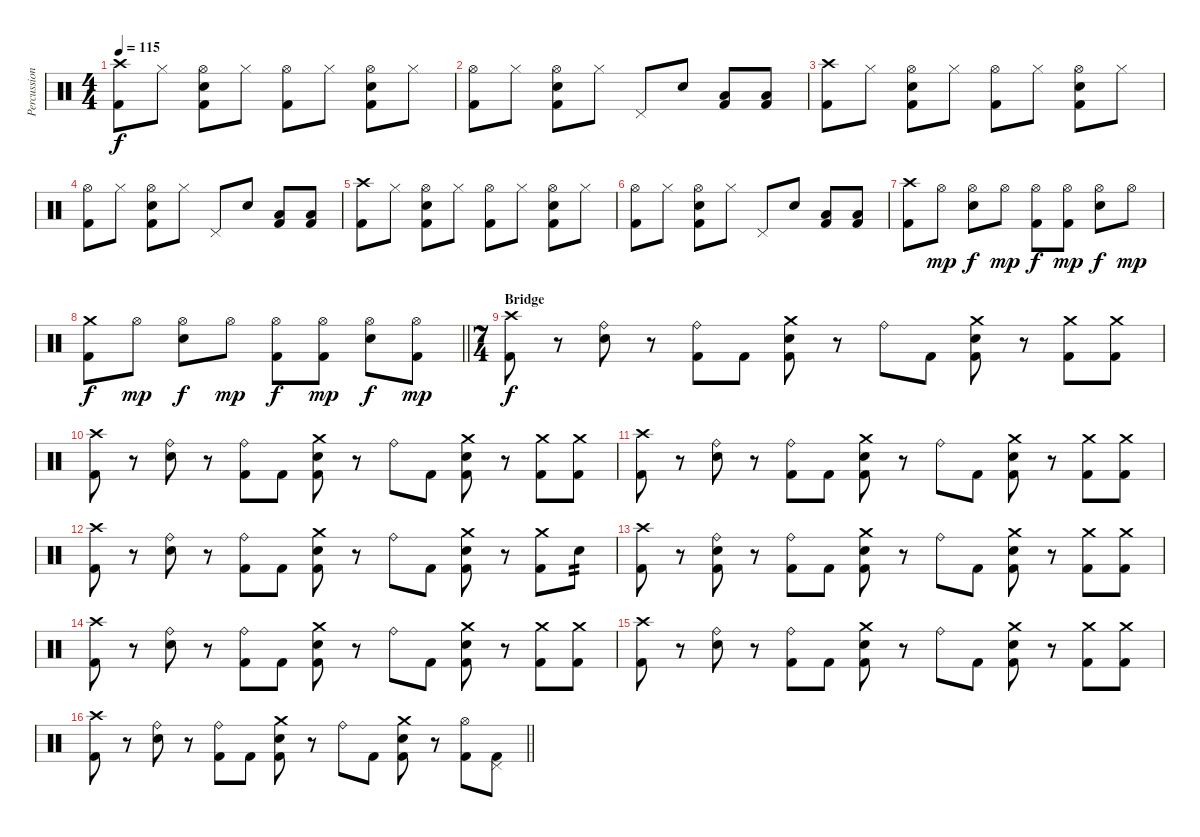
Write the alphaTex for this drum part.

\track ("Percussion" "Percussion") {instrument percussion}
\staff {score}
\articulation defaults
\ts (4 4)
\tempo 115
\clef neutral
\ks c
("Crash high (hit)" "Kick (hit) 2").8{dy f} "Hi-Hat (closed)".8 ("Hi-Hat (open)" "Electric Snare (hit)" "Kick (hit) 2").8 "Hi-Hat (closed)".8 ("Hi-Hat (open)" "Kick (hit) 2").8 "Hi-Hat (closed)".8 ("Hi-Hat (open)" "Electric Snare (hit)" "Kick (hit) 2").8 "Hi-Hat (closed)".8 |
("Hi-Hat (open)" "Kick (hit) 2").8 "Hi-Hat (closed)".8 ("Hi-Hat (open)" "Electric Snare (hit)" "Kick (hit) 2").8 "Hi-Hat (closed)".8 "Pedal Hi-Hat (hit)".8 "Electric Snare (hit)".8 ("Low Tom (hit)" "Kick (hit) 2").8 ("Low Floor Tom (hit)" "Kick (hit) 2").8 |
("Crash high (hit)" "Kick (hit) 2").8 "Hi-Hat (closed)".8 ("Hi-Hat (open)" "Electric Snare (hit)" "Kick (hit) 2").8 "Hi-Hat (closed)".8 ("Hi-Hat (open)" "Kick (hit) 2").8 "Hi-Hat (closed)".8 ("Hi-Hat (open)" "Electric Snare (hit)" "Kick (hit) 2").8 "Hi-Hat (closed)".8 |
("Hi-Hat (open)" "Kick (hit) 2").8 "Hi-Hat (closed)".8 ("Hi-Hat (open)" "Electric Snare (hit)" "Kick (hit) 2").8 "Hi-Hat (closed)".8 "Pedal Hi-Hat (hit)".8 "Electric Snare (hit)".8 ("Low Tom (hit)" "Kick (hit) 2").8 ("Low Floor Tom (hit)" "Kick (hit) 2").8 |
("Crash high (hit)" "Kick (hit) 2").8 "Hi-Hat (closed)".8 ("Hi-Hat (open)" "Electric Snare (hit)" "Kick (hit) 2").8 "Hi-Hat (closed)".8 ("Hi-Hat (open)" "Kick (hit) 2").8 "Hi-Hat (closed)".8 ("Hi-Hat (open)" "Electric Snare (hit)" "Kick (hit) 2").8 "Hi-Hat (closed)".8 |
("Hi-Hat (open)" "Kick (hit) 2").8 "Hi-Hat (closed)".8 ("Hi-Hat (open)" "Electric Snare (hit)" "Kick (hit) 2").8 "Hi-Hat (closed)".8 "Pedal Hi-Hat (hit)".8 "Electric Snare (hit)".8 ("Low Tom (hit)" "Kick (hit) 2").8 ("Low Floor Tom (hit)" "Kick (hit) 2").8 |
("Crash high (hit)" "Kick (hit) 2").8 "Hi-Hat (open)".8{dy mp} ("Hi-Hat (open)" "Electric Snare (hit)").8{dy f} "Hi-Hat (open)".8{dy mp} ("Hi-Hat (open)" "Kick (hit) 2").8{dy f} ("Hi-Hat (open)" "Kick (hit) 2").8{dy mp} ("Hi-Hat (open)" "Electric Snare (hit)").8{dy f} "Hi-Hat (open)".8{dy mp} |
\barLineRight lightlight
("Crash medium (hit)" "Kick (hit) 2").8{dy f} "Hi-Hat (open)".8{dy mp} ("Hi-Hat (open)" "Electric Snare (hit)").8{dy f} "Hi-Hat (open)".8{dy mp} ("Hi-Hat (open)" "Kick (hit) 2").8{dy f} ("Hi-Hat (open)" "Kick (hit) 2").8{dy mp} ("Hi-Hat (open)" "Electric Snare (hit)").8{dy f} ("Hi-Hat (open)" "Kick (hit) 2").8{dy mp} |
\ts (7 4)
\section ("" "Bridge")
("Crash high (hit)" "Kick (hit) 2").8{dy f} r.8 ("Ride (bell)" "Electric Snare (hit)").8 r.8 ("Ride (bell)" "Kick (hit) 2").8 "Kick (hit) 2".8 ("Crash medium (hit)" "Electric Snare (hit)" "Kick (hit) 2").8 r.8 "Ride (bell)".8 "Kick (hit) 2".8 ("Crash medium (hit)" "Electric Snare (hit)" "Kick (hit) 2").8 r.8 ("Crash medium (hit)" "Kick (hit) 2").8 ("Crash medium (hit)" "Kick (hit) 2").8 |
("Crash high (hit)" "Kick (hit) 2").8 r.8 ("Ride (bell)" "Electric Snare (hit)").8 r.8 ("Ride (bell)" "Kick (hit) 2").8 "Kick (hit) 2".8 ("Crash medium (hit)" "Electric Snare (hit)" "Kick (hit) 2").8 r.8 "Ride (bell)".8 "Kick (hit) 2".8 ("Crash medium (hit)" "Electric Snare (hit)" "Kick (hit) 2").8 r.8 ("Crash medium (hit)" "Kick (hit) 2").8 ("Crash medium (hit)" "Kick (hit) 2").8 |
("Crash high (hit)" "Kick (hit) 2").8 r.8 ("Ride (bell)" "Electric Snare (hit)").8 r.8 ("Ride (bell)" "Kick (hit) 2").8 "Kick (hit) 2".8 ("Crash medium (hit)" "Electric Snare (hit)" "Kick (hit) 2").8 r.8 "Ride (bell)".8 "Kick (hit) 2".8 ("Crash medium (hit)" "Electric Snare (hit)" "Kick (hit) 2").8 r.8 ("Crash medium (hit)" "Kick (hit) 2").8 ("Crash medium (hit)" "Kick (hit) 2").8 |
("Crash high (hit)" "Kick (hit) 2").8 r.8 ("Ride (bell)" "Electric Snare (hit)").8 r.8 ("Ride (bell)" "Kick (hit) 2").8 "Kick (hit) 2".8 ("Crash medium (hit)" "Electric Snare (hit)" "Kick (hit) 2").8 r.8 "Ride (bell)".8 "Kick (hit) 2".8 ("Crash medium (hit)" "Electric Snare (hit)" "Kick (hit) 2").8 r.8 ("Crash medium (hit)" "Kick (hit) 2").8 "Electric Snare (hit)".8{tp 2} |
("Crash high (hit)" "Kick (hit) 2").8 r.8 ("Ride (bell)" "Electric Snare (hit)" "Kick (hit) 2").8 r.8 ("Ride (bell)" "Kick (hit) 2").8 "Kick (hit) 2".8 ("Crash medium (hit)" "Electric Snare (hit)" "Kick (hit) 2").8 r.8 "Ride (bell)".8 "Kick (hit) 2".8 ("Crash medium (hit)" "Electric Snare (hit)" "Kick (hit) 2").8 r.8 ("Crash medium (hit)" "Kick (hit) 2").8 ("Crash medium (hit)" "Kick (hit) 2").8 |
("Crash high (hit)" "Kick (hit) 2").8 r.8 ("Ride (bell)" "Electric Snare (hit)").8 r.8 ("Ride (bell)" "Kick (hit) 2").8 "Kick (hit) 2".8 ("Crash medium (hit)" "Electric Snare (hit)" "Kick (hit) 2").8 r.8 "Ride (bell)".8 "Kick (hit) 2".8 ("Crash medium (hit)" "Electric Snare (hit)" "Kick (hit) 2").8 r.8 ("Crash medium (hit)" "Kick (hit) 2").8 ("Crash medium (hit)" "Kick (hit) 2").8 |
("Crash high (hit)" "Kick (hit) 2").8 r.8 ("Ride (bell)" "Electric Snare (hit)").8 r.8 ("Ride (bell)" "Kick (hit) 2").8 "Kick (hit) 2".8 ("Crash medium (hit)" "Electric Snare (hit)" "Kick (hit) 2").8 r.8 "Ride (bell)".8 "Kick (hit) 2".8 ("Crash medium (hit)" "Electric Snare (hit)" "Kick (hit) 2").8 r.8 ("Crash medium (hit)" "Kick (hit) 2").8 ("Crash medium (hit)" "Kick (hit) 2").8 |
\barLineRight lightlight
("Crash high (hit)" "Kick (hit) 2").8 r.8 ("Ride (bell)" "Electric Snare (hit)").8 r.8 ("Ride (bell)" "Kick (hit) 2").8 "Kick (hit) 2".8 ("Crash medium (hit)" "Electric Snare (hit)" "Kick (hit) 2").8 r.8 "Ride (bell)".8 "Kick (hit) 2".8 ("Crash medium (hit)" "Electric Snare (hit)" "Kick (hit) 2").8 r.8 ("Hi-Hat (open)" "Kick (hit) 2").8 ("Pedal Hi-Hat (hit)" "Kick (hit) 2").8
